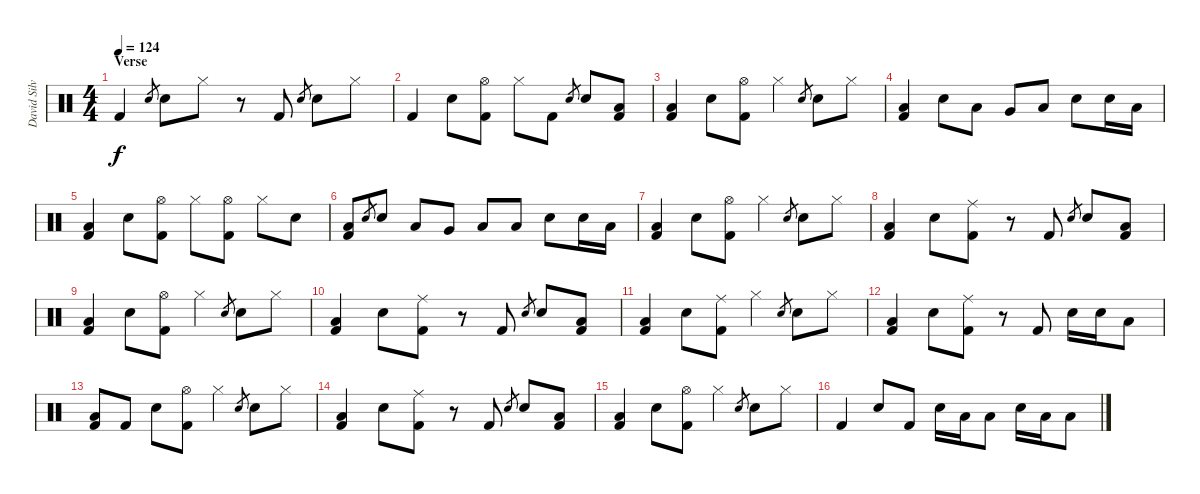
\track ("David Silvera" "David Silv") {instrument percussion}
\staff {score}
\articulation defaults
\ts (4 4)
\section ("" "Verse")
\tempo 124
\clef neutral
\ks c "Kick (hit) 2".4{dy f} "Electric Snare (hit)".8{gr} "Electric Snare (hit)".8 "Hi-Hat (closed)".8
r.8 "Kick (hit) 2".8 "Electric Snare (hit)".8{gr} "Electric Snare (hit)".8 "Hi-Hat (closed)".8 |
"Kick (hit) 2".4 "Electric Snare (hit)".8 ("Hi-Hat (open)" "Kick (hit) 2").8 "Hi-Hat (closed)".8 "Kick (hit) 2".8 "Electric Snare (hit)".8{gr} "Electric Snare (hit)".8 ("Low Tom (hit)" "Kick (hit) 2").8 |
("Low Tom (hit)" "Kick (hit) 2").4 "Electric Snare (hit)".8 ("Hi-Hat (open)" "Kick (hit) 2").8 "Hi-Hat (closed)".4 "Electric Snare (hit)".8{gr} "Electric Snare (hit)".8 "Hi-Hat (closed)".8 |
("Low Tom (hit)" "Kick (hit) 2").4 "Electric Snare (hit)".8 "Low Tom (hit)".8 "Very Low Tom (hit)".8 "Low Floor Tom (hit)".8 "Electric Snare (hit)".8 "Electric Snare (hit)".16 "Low Floor Tom (hit)".16 |
("Low Tom (hit)" "Kick (hit) 2").4 "Electric Snare (hit)".8 ("Hi-Hat (open)" "Kick (hit) 2").8 "Hi-Hat (closed)".8 ("Hi-Hat (open)" "Kick (hit) 2").8 "Hi-Hat (closed)".8 "Electric Snare (hit)".8 |
("Low Tom (hit)" "Kick (hit) 2").8 "Electric Snare (hit)".8{gr} "Electric Snare (hit)".8 "Low Tom (hit)".8 "Very Low Tom (hit)".8 "Low Floor Tom (hit)".8 "Low Floor Tom (hit)".8 "Electric Snare (hit)".8 "Electric Snare (hit)".16 "Low Floor Tom (hit)".16 |
("Low Tom (hit)" "Kick (hit) 2").4 "Electric Snare (hit)".8 ("Hi-Hat (open)" "Kick (hit) 2").8 "Hi-Hat (closed)".4 "Electric Snare (hit)".8{gr} "Electric Snare (hit)".8 "Hi-Hat (closed)".8 |
("Low Tom (hit)" "Kick (hit) 2").4 "Electric Snare (hit)".8 ("Ride (middle)" "Kick (hit) 2").8 r.8 "Kick (hit) 2".8 "Electric Snare (hit)".8{gr} "Electric Snare (hit)".8 ("Low Floor Tom (hit)" "Kick (hit) 2").8 |
("Low Tom (hit)" "Kick (hit) 2").4 "Electric Snare (hit)".8 ("Hi-Hat (open)" "Kick (hit) 2").8 "Hi-Hat (closed)".4 "Electric Snare (hit)".8{gr} "Electric Snare (hit)".8 "Hi-Hat (closed)".8 |
("Low Tom (hit)" "Kick (hit) 2").4 "Electric Snare (hit)".8 ("Ride (middle)" "Kick (hit) 2").8 r.8 "Kick (hit) 2".8 "Electric Snare (hit)".8{gr} "Electric Snare (hit)".8 ("Low Floor Tom (hit)" "Kick (hit) 2").8 |
("Low Tom (hit)" "Kick (hit) 2").4 "Electric Snare (hit)".8 ("Ride (middle)" "Kick (hit) 2").8 "Hi-Hat (closed)".4 "Electric Snare (hit)".8{gr} "Electric Snare (hit)".8 "Hi-Hat (closed)".8 |
("Low Tom (hit)" "Kick (hit) 2").4 "Electric Snare (hit)".8 ("Ride (middle)" "Kick (hit) 2").8 r.8 "Kick (hit) 2".8 "Electric Snare (hit)".16 "Electric Snare (hit)".16 "Low Floor Tom (hit)".8 |
("Low Tom (hit)" "Kick (hit) 2").8 "Kick (hit) 2".8 "Electric Snare (hit)".8 ("Hi-Hat (open)" "Kick (hit) 2").8 "Hi-Hat (closed)".4 "Electric Snare (hit)".8{gr} "Electric Snare (hit)".8 "Hi-Hat (closed)".8 |
("Low Tom (hit)" "Kick (hit) 2").4 "Electric Snare (hit)".8 ("Ride (middle)" "Kick (hit) 2").8 r.8 "Kick (hit) 2".8 "Electric Snare (hit)".8{gr} "Electric Snare (hit)".8 ("Low Floor Tom (hit)" "Kick (hit) 2").8 |
("Low Tom (hit)" "Kick (hit) 2").4 "Electric Snare (hit)".8 ("Hi-Hat (open)" "Kick (hit) 2").8 "Hi-Hat (closed)".4 "Electric Snare (hit)".8{gr} "Electric Snare (hit)".8 "Hi-Hat (closed)".8 |
"Kick (hit) 2".4 "Electric Snare (hit)".8 "Kick (hit) 2".8 "Electric Snare (hit)".16 "Low Tom (hit)".16 "Low Tom (hit)".8 "Electric Snare (hit)".16 "Low Tom (hit)".16 "Low Tom (hit)".8
